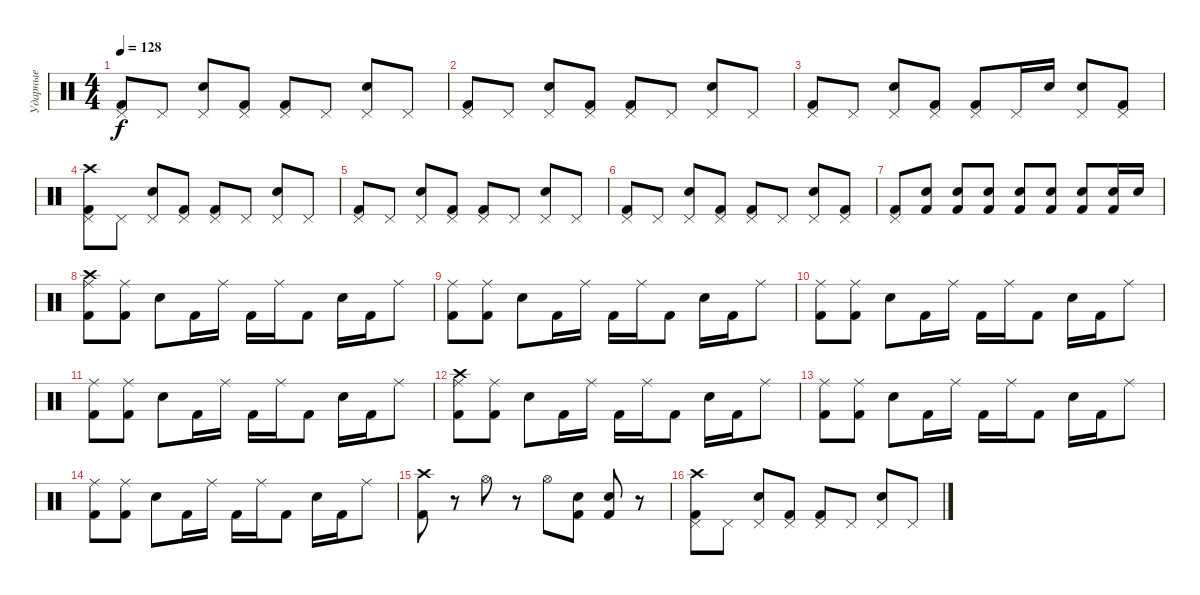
\track ("Ударные" "Ударные") {instrument percussion}
\staff {score}
\articulation defaults
\ts (4 4)
\tempo 128
\clef neutral
\ks c
("Kick (hit) 2" "Pedal Hi-Hat (hit)").8{dy f} "Pedal Hi-Hat (hit)".8 ("Pedal Hi-Hat (hit)" "Electric Snare (hit)").8 ("Kick (hit) 2" "Pedal Hi-Hat (hit)").8 ("Kick (hit) 2" "Pedal Hi-Hat (hit)").8 "Pedal Hi-Hat (hit)".8 ("Pedal Hi-Hat (hit)" "Electric Snare (hit)").8 "Pedal Hi-Hat (hit)".8 |
("Kick (hit) 2" "Pedal Hi-Hat (hit)").8 "Pedal Hi-Hat (hit)".8 ("Pedal Hi-Hat (hit)" "Electric Snare (hit)").8 ("Kick (hit) 2" "Pedal Hi-Hat (hit)").8 ("Kick (hit) 2" "Pedal Hi-Hat (hit)").8 "Pedal Hi-Hat (hit)".8 ("Pedal Hi-Hat (hit)" "Electric Snare (hit)").8 "Pedal Hi-Hat (hit)".8 |
("Kick (hit) 2" "Pedal Hi-Hat (hit)").8 "Pedal Hi-Hat (hit)".8 ("Pedal Hi-Hat (hit)" "Electric Snare (hit)").8 ("Kick (hit) 2" "Pedal Hi-Hat (hit)").8 ("Kick (hit) 2" "Pedal Hi-Hat (hit)").8 "Pedal Hi-Hat (hit)".16 "Electric Snare (hit)".16 ("Pedal Hi-Hat (hit)" "Electric Snare (hit)").8 ("Kick (hit) 2" "Pedal Hi-Hat (hit)").8 |
("Kick (hit) 2" "Pedal Hi-Hat (hit)" "Crash high (hit)").8 "Pedal Hi-Hat (hit)".8 ("Pedal Hi-Hat (hit)" "Electric Snare (hit)").8 ("Kick (hit) 2" "Pedal Hi-Hat (hit)").8 ("Kick (hit) 2" "Pedal Hi-Hat (hit)").8 "Pedal Hi-Hat (hit)".8 ("Pedal Hi-Hat (hit)" "Electric Snare (hit)").8 "Pedal Hi-Hat (hit)".8 |
("Kick (hit) 2" "Pedal Hi-Hat (hit)").8 "Pedal Hi-Hat (hit)".8 ("Pedal Hi-Hat (hit)" "Electric Snare (hit)").8 ("Kick (hit) 2" "Pedal Hi-Hat (hit)").8 ("Kick (hit) 2" "Pedal Hi-Hat (hit)").8 "Pedal Hi-Hat (hit)".8 ("Pedal Hi-Hat (hit)" "Electric Snare (hit)").8 "Pedal Hi-Hat (hit)".8 |
("Kick (hit) 2" "Pedal Hi-Hat (hit)").8 "Pedal Hi-Hat (hit)".8 ("Pedal Hi-Hat (hit)" "Electric Snare (hit)").8 ("Kick (hit) 2" "Pedal Hi-Hat (hit)").8 ("Kick (hit) 2" "Pedal Hi-Hat (hit)").8 "Pedal Hi-Hat (hit)".8 ("Pedal Hi-Hat (hit)" "Electric Snare (hit)").8 ("Kick (hit) 2" "Pedal Hi-Hat (hit)").8 |
("Kick (hit) 2" "Pedal Hi-Hat (hit)").8 ("Kick (hit) 2" "Electric Snare (hit)").8 ("Kick (hit) 2" "Electric Snare (hit)").8 ("Kick (hit) 2" "Electric Snare (hit)").8 ("Kick (hit) 2" "Electric Snare (hit)").8 ("Kick (hit) 2" "Electric Snare (hit)").8 ("Kick (hit) 2" "Electric Snare (hit)").8 ("Kick (hit) 2" "Electric Snare (hit)").16 "Electric Snare (hit)".16 |
("Kick (hit) 2" "Ride (middle)" "Crash high (hit)").8 ("Kick (hit) 2" "Ride (middle)").8 "Electric Snare (hit)".8 "Kick (hit) 2".16 "Ride (middle)".16 "Kick (hit) 2".16 "Ride (middle)".16 "Kick (hit) 2".8 "Electric Snare (hit)".16 "Kick (hit) 2".16 "Ride (middle)".8 |
("Kick (hit) 2" "Ride (middle)").8 ("Kick (hit) 2" "Ride (middle)").8 "Electric Snare (hit)".8 "Kick (hit) 2".16 "Ride (middle)".16 "Kick (hit) 2".16 "Ride (middle)".16 "Kick (hit) 2".8 "Electric Snare (hit)".16 "Kick (hit) 2".16 "Ride (middle)".8 |
("Kick (hit) 2" "Ride (middle)").8 ("Kick (hit) 2" "Ride (middle)").8 "Electric Snare (hit)".8 "Kick (hit) 2".16 "Ride (middle)".16 "Kick (hit) 2".16 "Ride (middle)".16 "Kick (hit) 2".8 "Electric Snare (hit)".16 "Kick (hit) 2".16 "Ride (middle)".8 |
("Kick (hit) 2" "Ride (middle)").8 ("Kick (hit) 2" "Ride (middle)").8 "Electric Snare (hit)".8 "Kick (hit) 2".16 "Ride (middle)".16 "Kick (hit) 2".16 "Ride (middle)".16 "Kick (hit) 2".8 "Electric Snare (hit)".16 "Kick (hit) 2".16 "Ride (middle)".8 |
("Kick (hit) 2" "Ride (middle)" "Crash high (hit)").8 ("Kick (hit) 2" "Ride (middle)").8 "Electric Snare (hit)".8 "Kick (hit) 2".16 "Ride (middle)".16 "Kick (hit) 2".16 "Ride (middle)".16 "Kick (hit) 2".8 "Electric Snare (hit)".16 "Kick (hit) 2".16 "Ride (middle)".8 |
("Kick (hit) 2" "Ride (middle)").8 ("Kick (hit) 2" "Ride (middle)").8 "Electric Snare (hit)".8 "Kick (hit) 2".16 "Ride (middle)".16 "Kick (hit) 2".16 "Ride (middle)".16 "Kick (hit) 2".8 "Electric Snare (hit)".16 "Kick (hit) 2".16 "Ride (middle)".8 |
("Kick (hit) 2" "Ride (middle)").8 ("Kick (hit) 2" "Ride (middle)").8 "Electric Snare (hit)".8 "Kick (hit) 2".16 "Ride (middle)".16 "Kick (hit) 2".16 "Ride (middle)".16 "Kick (hit) 2".8 "Electric Snare (hit)".16 "Kick (hit) 2".16 "Ride (middle)".8 |
("Kick (hit) 2" "Crash high (hit)").8 r.8 "Hi-Hat (open)".8 r.8 "Hi-Hat (open)".8 ("Kick (hit) 2" "Electric Snare (hit)").8 ("Kick (hit) 2" "Electric Snare (hit)").8 r.8 |
("Kick (hit) 2" "Pedal Hi-Hat (hit)" "Crash high (hit)").8 "Pedal Hi-Hat (hit)".8 ("Pedal Hi-Hat (hit)" "Electric Snare (hit)").8 ("Kick (hit) 2" "Pedal Hi-Hat (hit)").8 ("Kick (hit) 2" "Pedal Hi-Hat (hit)").8 "Pedal Hi-Hat (hit)".8 ("Pedal Hi-Hat (hit)" "Electric Snare (hit)").8 "Pedal Hi-Hat (hit)".8
